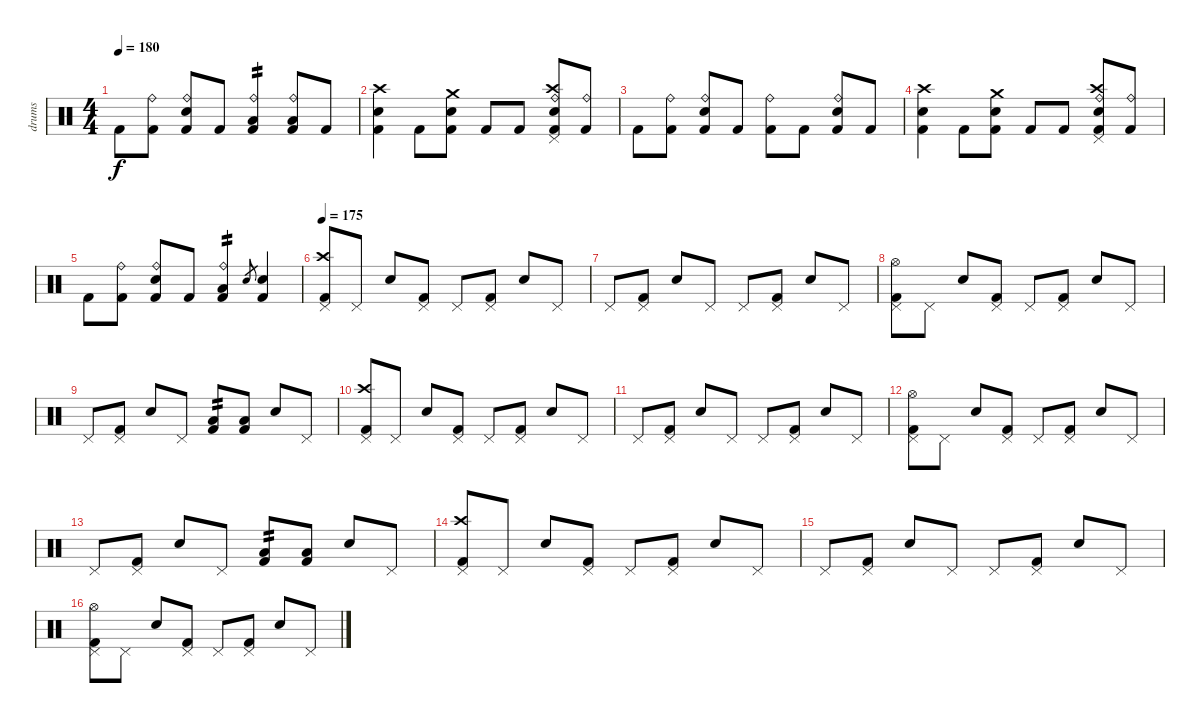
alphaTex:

\track ("drums" "drums") {instrument percussion}
\staff {score}
\articulation defaults
\ts (4 4)
\tempo 180
\clef neutral
\ks c "Kick (hit) 2".8{dy f}
("Ride (bell)" "Kick (hit) 2").8 ("Ride (bell)" "Electric Snare (hit)" "Kick (hit) 2").8 "Kick (hit) 2".8 ("Ride (bell)" "Low Tom (hit)" "Kick (hit) 2").4{tp 2} ("Ride (bell)" "Low Floor Tom (hit)" "Kick (hit) 2").8 "Kick (hit) 2".8 |
("Crash high (hit)" "Electric Snare (hit)" "Kick (hit) 2").4 "Kick (hit) 2".8 ("Crash medium (hit)" "Electric Snare (hit)" "Kick (hit) 2").8 "Kick (hit) 2".8 "Kick (hit) 2".8 ("Ride (bell)" "Crash high (hit)" "Pedal Hi-Hat (hit)" "Electric Snare (hit)" "Kick (hit) 2").8 ("Ride (bell)" "Kick (hit) 2").8 |
"Kick (hit) 2".8 ("Ride (bell)" "Kick (hit) 2").8 ("Ride (bell)" "Electric Snare (hit)" "Kick (hit) 2").8 "Kick (hit) 2".8 ("Ride (bell)" "Kick (hit) 2").8 "Kick (hit) 2".8 ("Ride (bell)" "Electric Snare (hit)" "Kick (hit) 2").8 "Kick (hit) 2".8 |
("Crash high (hit)" "Electric Snare (hit)" "Kick (hit) 2").4 "Kick (hit) 2".8 ("Crash medium (hit)" "Electric Snare (hit)" "Kick (hit) 2").8 "Kick (hit) 2".8 "Kick (hit) 2".8 ("Ride (bell)" "Crash high (hit)" "Pedal Hi-Hat (hit)" "Electric Snare (hit)" "Kick (hit) 2").8 ("Ride (bell)" "Kick (hit) 2").8 |
"Kick (hit) 2".8 ("Ride (bell)" "Kick (hit) 2").8 ("Ride (bell)" "Electric Snare (hit)" "Kick (hit) 2").8 "Kick (hit) 2".8 ("Ride (bell)" "Low Tom (hit)" "Kick (hit) 2").4{tp 2} "Electric Snare (hit)".8{gr} ("Electric Snare (hit)" "Kick (hit) 2").4 |
\tempo 175
("Crash high (hit)" "Pedal Hi-Hat (hit)" "Kick (hit) 2").8 "Pedal Hi-Hat (hit)".8 "Electric Snare (hit)".8 ("Pedal Hi-Hat (hit)" "Kick (hit) 2").8 "Pedal Hi-Hat (hit)".8 ("Pedal Hi-Hat (hit)" "Kick (hit) 2").8 "Electric Snare (hit)".8 "Pedal Hi-Hat (hit)".8 |
"Pedal Hi-Hat (hit)".8 ("Pedal Hi-Hat (hit)" "Kick (hit) 2").8 "Electric Snare (hit)".8 "Pedal Hi-Hat (hit)".8 "Pedal Hi-Hat (hit)".8 ("Pedal Hi-Hat (hit)" "Kick (hit) 2").8 "Electric Snare (hit)".8 "Pedal Hi-Hat (hit)".8 |
("Hi-Hat (open)" "Pedal Hi-Hat (hit)" "Kick (hit) 2").8 "Pedal Hi-Hat (hit)".8 "Electric Snare (hit)".8 ("Pedal Hi-Hat (hit)" "Kick (hit) 2").8 "Pedal Hi-Hat (hit)".8 ("Pedal Hi-Hat (hit)" "Kick (hit) 2").8 "Electric Snare (hit)".8 "Pedal Hi-Hat (hit)".8 |
"Pedal Hi-Hat (hit)".8 ("Pedal Hi-Hat (hit)" "Kick (hit) 2").8 "Electric Snare (hit)".8 "Pedal Hi-Hat (hit)".8 ("Low Tom (hit)" "Kick (hit) 2").8{tp 2} ("Low Tom (hit)" "Kick (hit) 2").8 "Electric Snare (hit)".8 "Pedal Hi-Hat (hit)".8 |
("Crash high (hit)" "Pedal Hi-Hat (hit)" "Kick (hit) 2").8 "Pedal Hi-Hat (hit)".8 "Electric Snare (hit)".8 ("Pedal Hi-Hat (hit)" "Kick (hit) 2").8 "Pedal Hi-Hat (hit)".8 ("Pedal Hi-Hat (hit)" "Kick (hit) 2").8 "Electric Snare (hit)".8 "Pedal Hi-Hat (hit)".8 |
"Pedal Hi-Hat (hit)".8 ("Pedal Hi-Hat (hit)" "Kick (hit) 2").8 "Electric Snare (hit)".8 "Pedal Hi-Hat (hit)".8 "Pedal Hi-Hat (hit)".8 ("Pedal Hi-Hat (hit)" "Kick (hit) 2").8 "Electric Snare (hit)".8 "Pedal Hi-Hat (hit)".8 |
("Hi-Hat (open)" "Pedal Hi-Hat (hit)" "Kick (hit) 2").8 "Pedal Hi-Hat (hit)".8 "Electric Snare (hit)".8 ("Pedal Hi-Hat (hit)" "Kick (hit) 2").8 "Pedal Hi-Hat (hit)".8 ("Pedal Hi-Hat (hit)" "Kick (hit) 2").8 "Electric Snare (hit)".8 "Pedal Hi-Hat (hit)".8 |
"Pedal Hi-Hat (hit)".8 ("Pedal Hi-Hat (hit)" "Kick (hit) 2").8 "Electric Snare (hit)".8 "Pedal Hi-Hat (hit)".8 ("Low Tom (hit)" "Kick (hit) 2").8{tp 2} ("Low Tom (hit)" "Kick (hit) 2").8 "Electric Snare (hit)".8 "Pedal Hi-Hat (hit)".8 |
("Crash high (hit)" "Pedal Hi-Hat (hit)" "Kick (hit) 2").8 "Pedal Hi-Hat (hit)".8 "Electric Snare (hit)".8 ("Pedal Hi-Hat (hit)" "Kick (hit) 2").8 "Pedal Hi-Hat (hit)".8 ("Pedal Hi-Hat (hit)" "Kick (hit) 2").8 "Electric Snare (hit)".8 "Pedal Hi-Hat (hit)".8 |
"Pedal Hi-Hat (hit)".8 ("Pedal Hi-Hat (hit)" "Kick (hit) 2").8 "Electric Snare (hit)".8 "Pedal Hi-Hat (hit)".8 "Pedal Hi-Hat (hit)".8 ("Pedal Hi-Hat (hit)" "Kick (hit) 2").8 "Electric Snare (hit)".8 "Pedal Hi-Hat (hit)".8 |
("Hi-Hat (open)" "Pedal Hi-Hat (hit)" "Kick (hit) 2").8 "Pedal Hi-Hat (hit)".8 "Electric Snare (hit)".8 ("Pedal Hi-Hat (hit)" "Kick (hit) 2").8 "Pedal Hi-Hat (hit)".8 ("Pedal Hi-Hat (hit)" "Kick (hit) 2").8 "Electric Snare (hit)".8 "Pedal Hi-Hat (hit)".8
